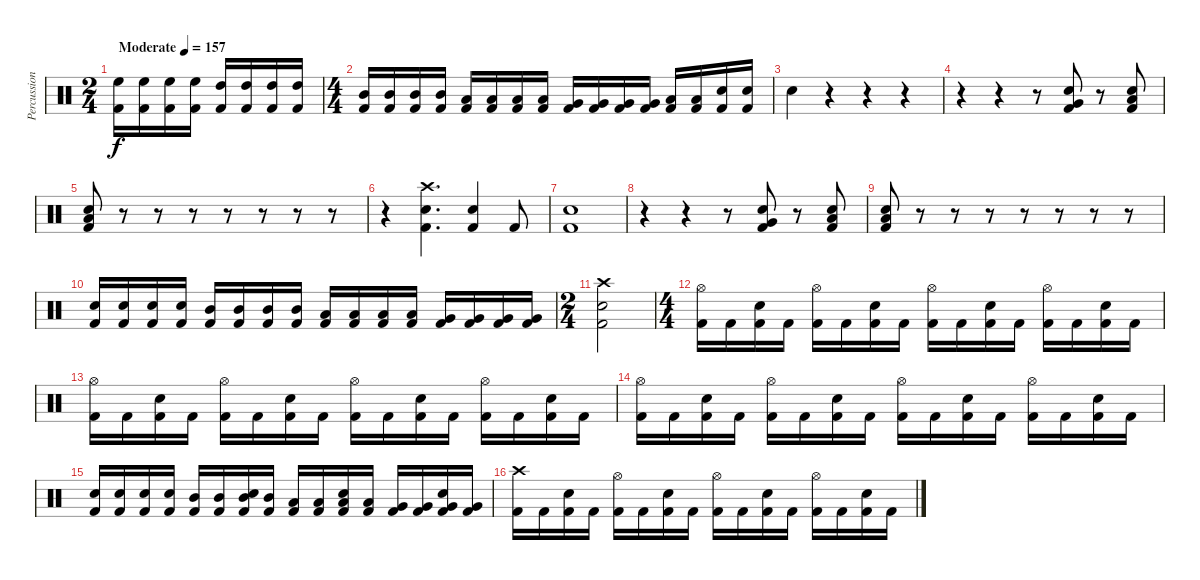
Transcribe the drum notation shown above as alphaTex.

\track ("Percussions" "Percussion") {instrument percussion}
\staff {score}
\articulation defaults
\ts (2 4)
\tempo (157 "Moderate")
\clef neutral
\ks c
("High Floor Tom (hit)" "Kick (hit) 2").16{dy f} ("High Floor Tom (hit)" "Kick (hit) 2").16 ("High Floor Tom (hit)" "Kick (hit) 2").16 ("High Floor Tom (hit)" "Kick (hit) 2").16 ("High Tom (hit)" "Kick (hit) 2").16 ("High Tom (hit)" "Kick (hit) 2").16 ("High Tom (hit)" "Kick (hit) 2").16 ("High Tom (hit)" "Kick (hit) 2").16 |
\ts (4 4)
("Mid Tom (hit)" "Kick (hit) 2").16 ("Mid Tom (hit)" "Kick (hit) 2").16 ("Mid Tom (hit)" "Kick (hit) 2").16 ("Mid Tom (hit)" "Kick (hit) 2").16 ("Low Tom (hit)" "Kick (hit) 2").16 ("Low Tom (hit)" "Kick (hit) 2").16 ("Low Tom (hit)" "Kick (hit) 2").16 ("Low Tom (hit)" "Kick (hit) 2").16 ("Very Low Tom (hit)" "Kick (hit) 2").16 ("Very Low Tom (hit)" "Kick (hit) 2").16 ("Very Low Tom (hit)" "Kick (hit) 2").16 ("Very Low Tom (hit)" "Kick (hit) 2").16 ("Low Floor Tom (hit)" "Kick (hit) 2").16 ("Low Floor Tom (hit)" "Kick (hit) 2").16 ("Snare (hit) 2" "Kick (hit) 2").16 ("Snare (hit) 2" "Kick (hit) 2").16 |
"Snare (hit) 2".4 r.4 r.4 r.4 |
r.4 r.4 r.8 ("Snare (hit) 2" "Very Low Tom (hit)" "Kick (hit) 2").8 r.8 ("Snare (hit) 2" "Low Floor Tom (hit)" "Kick (hit) 2").8 |
("Snare (hit) 2" "Low Floor Tom (hit)" "Kick (hit) 2").8 r.8 r.8 r.8 r.8 r.8 r.8 r.8 |
r.4 ("Crash high (hit)" "Snare (hit) 2" "Kick (hit) 2").4{d} ("Snare (hit) 2" "Kick (hit) 2").4 "Kick (hit) 2".8 |
("Snare (hit) 2" "Kick (hit) 2").1 |
r.4 r.4 r.8 ("Snare (hit) 2" "Very Low Tom (hit)" "Kick (hit) 2").8 r.8 ("Snare (hit) 2" "Low Floor Tom (hit)" "Kick (hit) 2").8 |
("Snare (hit) 2" "Low Floor Tom (hit)" "Kick (hit) 2").8 r.8 r.8 r.8 r.8 r.8 r.8 r.8 |
("Snare (hit) 2" "Kick (hit) 2").16 ("Snare (hit) 2" "Kick (hit) 2").16 ("Snare (hit) 2" "Kick (hit) 2").16 ("Snare (hit) 2" "Kick (hit) 2").16 ("Mid Tom (hit)" "Kick (hit) 2").16 ("Mid Tom (hit)" "Kick (hit) 2").16 ("Mid Tom (hit)" "Kick (hit) 2").16 ("Mid Tom (hit)" "Kick (hit) 2").16 ("Low Tom (hit)" "Kick (hit) 2").16 ("Low Tom (hit)" "Kick (hit) 2").16 ("Low Tom (hit)" "Kick (hit) 2").16 ("Low Tom (hit)" "Kick (hit) 2").16 ("Very Low Tom (hit)" "Kick (hit) 2").16 ("Very Low Tom (hit)" "Kick (hit) 2").16 ("Very Low Tom (hit)" "Kick (hit) 2").16 ("Very Low Tom (hit)" "Kick (hit) 2").16 |
\ts (2 4)
("Crash high (hit)" "Snare (hit) 2" "Kick (hit) 2").2 |
\ts (4 4)
("Hi-Hat (open)" "Kick (hit) 2").16 "Kick (hit) 2".16 ("Snare (hit) 2" "Kick (hit) 2").16 "Kick (hit) 2".16 ("Hi-Hat (open)" "Kick (hit) 2").16 "Kick (hit) 2".16 ("Snare (hit) 2" "Kick (hit) 2").16 "Kick (hit) 2".16 ("Hi-Hat (open)" "Kick (hit) 2").16 "Kick (hit) 2".16 ("Snare (hit) 2" "Kick (hit) 2").16 "Kick (hit) 2".16 ("Hi-Hat (open)" "Kick (hit) 2").16 "Kick (hit) 2".16 ("Snare (hit) 2" "Kick (hit) 2").16 "Kick (hit) 2".16 |
("Hi-Hat (open)" "Kick (hit) 2").16 "Kick (hit) 2".16 ("Snare (hit) 2" "Kick (hit) 2").16 "Kick (hit) 2".16 ("Hi-Hat (open)" "Kick (hit) 2").16 "Kick (hit) 2".16 ("Snare (hit) 2" "Kick (hit) 2").16 "Kick (hit) 2".16 ("Hi-Hat (open)" "Kick (hit) 2").16 "Kick (hit) 2".16 ("Snare (hit) 2" "Kick (hit) 2").16 "Kick (hit) 2".16 ("Hi-Hat (open)" "Kick (hit) 2").16 "Kick (hit) 2".16 ("Snare (hit) 2" "Kick (hit) 2").16 "Kick (hit) 2".16 |
("Hi-Hat (open)" "Kick (hit) 2").16 "Kick (hit) 2".16 ("Snare (hit) 2" "Kick (hit) 2").16 "Kick (hit) 2".16 ("Hi-Hat (open)" "Kick (hit) 2").16 "Kick (hit) 2".16 ("Snare (hit) 2" "Kick (hit) 2").16 "Kick (hit) 2".16 ("Hi-Hat (open)" "Kick (hit) 2").16 "Kick (hit) 2".16 ("Snare (hit) 2" "Kick (hit) 2").16 "Kick (hit) 2".16 ("Hi-Hat (open)" "Kick (hit) 2").16 "Kick (hit) 2".16 ("Snare (hit) 2" "Kick (hit) 2").16 "Kick (hit) 2".16 |
("Snare (hit) 2" "Kick (hit) 2").16 ("Snare (hit) 2" "Kick (hit) 2").16 ("Snare (hit) 2" "Kick (hit) 2").16 ("Snare (hit) 2" "Kick (hit) 2").16 ("Mid Tom (hit)" "Kick (hit) 2").16 ("Mid Tom (hit)" "Kick (hit) 2").16 ("Mid Tom (hit)" "Snare (hit) 2" "Kick (hit) 2").16 ("Mid Tom (hit)" "Kick (hit) 2").16 ("Low Tom (hit)" "Kick (hit) 2").16 ("Low Tom (hit)" "Kick (hit) 2").16 ("Low Tom (hit)" "Snare (hit) 2" "Kick (hit) 2").16 ("Low Tom (hit)" "Kick (hit) 2").16 ("Very Low Tom (hit)" "Kick (hit) 2").16 ("Very Low Tom (hit)" "Kick (hit) 2").16 ("Very Low Tom (hit)" "Snare (hit) 2" "Kick (hit) 2").16 ("Very Low Tom (hit)" "Kick (hit) 2").16 |
("Crash high (hit)" "Kick (hit) 2").16 "Kick (hit) 2".16 ("Snare (hit) 2" "Kick (hit) 2").16 "Kick (hit) 2".16 ("Hi-Hat (open)" "Kick (hit) 2").16 "Kick (hit) 2".16 ("Snare (hit) 2" "Kick (hit) 2").16 "Kick (hit) 2".16 ("Hi-Hat (open)" "Kick (hit) 2").16 "Kick (hit) 2".16 ("Snare (hit) 2" "Kick (hit) 2").16 "Kick (hit) 2".16 ("Hi-Hat (open)" "Kick (hit) 2").16 "Kick (hit) 2".16 ("Snare (hit) 2" "Kick (hit) 2").16 "Kick (hit) 2".16
